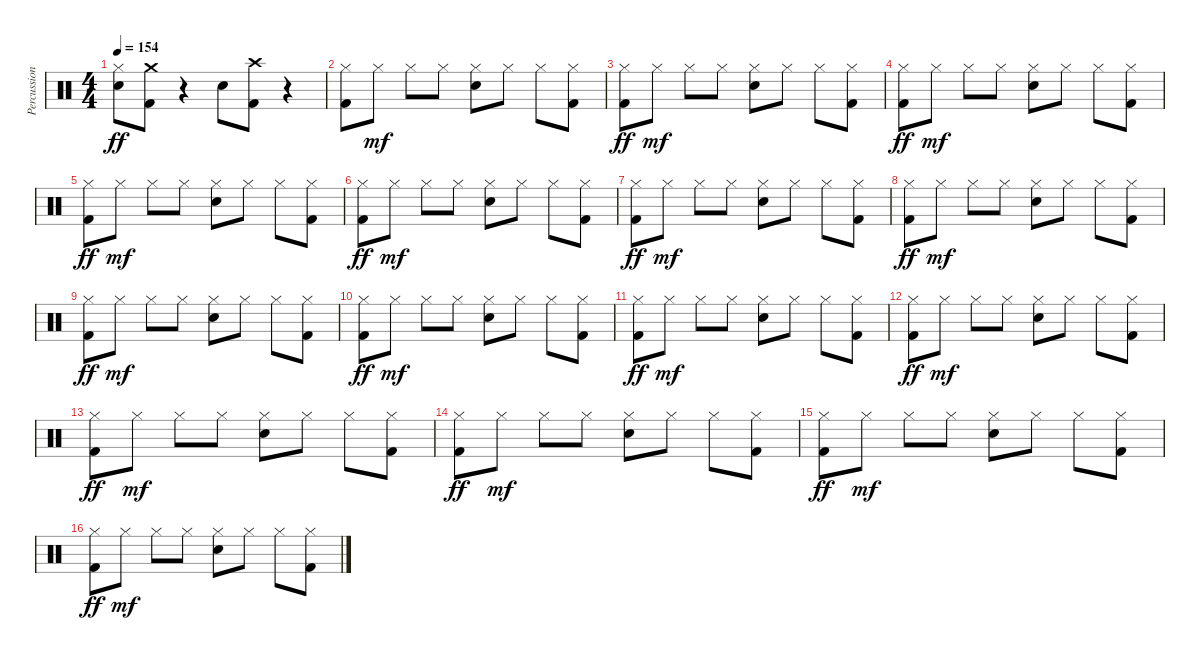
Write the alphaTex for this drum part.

\track ("Percussions" "Percussion") {instrument percussion}
\staff {score}
\articulation defaults
\ts (4 4)
\tempo 154
\clef neutral
\ks c
("Hi-Hat (closed)" "Electric Snare (hit)").8{dy ff} ("Crash medium (hit)" "Kick (hit) 2").8 r.4 "Electric Snare (hit)".8 ("Crash high (hit)" "Kick (hit) 2").8 r.4 |
("Hi-Hat (closed)" "Kick (hit) 2").8{volume 10} "Hi-Hat (closed)".8{dy mf} "Hi-Hat (closed)".8 "Hi-Hat (closed)".8 ("Hi-Hat (closed)" "Electric Snare (hit)").8 "Hi-Hat (closed)".8 "Hi-Hat (closed)".8 ("Hi-Hat (closed)" "Kick (hit) 2").8 |
("Hi-Hat (closed)" "Kick (hit) 2").8{dy ff} "Hi-Hat (closed)".8{dy mf} "Hi-Hat (closed)".8 "Hi-Hat (closed)".8 ("Hi-Hat (closed)" "Electric Snare (hit)").8 "Hi-Hat (closed)".8 "Hi-Hat (closed)".8 ("Hi-Hat (closed)" "Kick (hit) 2").8 |
("Hi-Hat (closed)" "Kick (hit) 2").8{dy ff} "Hi-Hat (closed)".8{dy mf} "Hi-Hat (closed)".8 "Hi-Hat (closed)".8 ("Hi-Hat (closed)" "Electric Snare (hit)").8 "Hi-Hat (closed)".8 "Hi-Hat (closed)".8 ("Hi-Hat (closed)" "Kick (hit) 2").8 |
("Hi-Hat (closed)" "Kick (hit) 2").8{dy ff} "Hi-Hat (closed)".8{dy mf} "Hi-Hat (closed)".8 "Hi-Hat (closed)".8 ("Hi-Hat (closed)" "Electric Snare (hit)").8 "Hi-Hat (closed)".8 "Hi-Hat (closed)".8 ("Hi-Hat (closed)" "Kick (hit) 2").8 |
("Hi-Hat (closed)" "Kick (hit) 2").8{dy ff} "Hi-Hat (closed)".8{dy mf} "Hi-Hat (closed)".8 "Hi-Hat (closed)".8 ("Hi-Hat (closed)" "Electric Snare (hit)").8 "Hi-Hat (closed)".8 "Hi-Hat (closed)".8 ("Hi-Hat (closed)" "Kick (hit) 2").8 |
("Hi-Hat (closed)" "Kick (hit) 2").8{dy ff} "Hi-Hat (closed)".8{dy mf} "Hi-Hat (closed)".8 "Hi-Hat (closed)".8 ("Hi-Hat (closed)" "Electric Snare (hit)").8 "Hi-Hat (closed)".8 "Hi-Hat (closed)".8 ("Hi-Hat (closed)" "Kick (hit) 2").8 |
("Hi-Hat (closed)" "Kick (hit) 2").8{dy ff} "Hi-Hat (closed)".8{dy mf} "Hi-Hat (closed)".8 "Hi-Hat (closed)".8 ("Hi-Hat (closed)" "Electric Snare (hit)").8 "Hi-Hat (closed)".8 "Hi-Hat (closed)".8 ("Hi-Hat (closed)" "Kick (hit) 2").8 |
("Hi-Hat (closed)" "Kick (hit) 2").8{dy ff} "Hi-Hat (closed)".8{dy mf} "Hi-Hat (closed)".8 "Hi-Hat (closed)".8 ("Hi-Hat (closed)" "Electric Snare (hit)").8 "Hi-Hat (closed)".8 "Hi-Hat (closed)".8 ("Hi-Hat (closed)" "Kick (hit) 2").8 |
("Hi-Hat (closed)" "Kick (hit) 2").8{dy ff} "Hi-Hat (closed)".8{dy mf} "Hi-Hat (closed)".8 "Hi-Hat (closed)".8 ("Hi-Hat (closed)" "Electric Snare (hit)").8 "Hi-Hat (closed)".8 "Hi-Hat (closed)".8 ("Hi-Hat (closed)" "Kick (hit) 2").8 |
("Hi-Hat (closed)" "Kick (hit) 2").8{dy ff} "Hi-Hat (closed)".8{dy mf} "Hi-Hat (closed)".8 "Hi-Hat (closed)".8 ("Hi-Hat (closed)" "Electric Snare (hit)").8 "Hi-Hat (closed)".8 "Hi-Hat (closed)".8 ("Hi-Hat (closed)" "Kick (hit) 2").8 |
("Hi-Hat (closed)" "Kick (hit) 2").8{dy ff} "Hi-Hat (closed)".8{dy mf} "Hi-Hat (closed)".8 "Hi-Hat (closed)".8 ("Hi-Hat (closed)" "Electric Snare (hit)").8 "Hi-Hat (closed)".8 "Hi-Hat (closed)".8 ("Hi-Hat (closed)" "Kick (hit) 2").8 |
("Hi-Hat (closed)" "Kick (hit) 2").8{dy ff} "Hi-Hat (closed)".8{dy mf} "Hi-Hat (closed)".8 "Hi-Hat (closed)".8 ("Hi-Hat (closed)" "Electric Snare (hit)").8 "Hi-Hat (closed)".8 "Hi-Hat (closed)".8 ("Hi-Hat (closed)" "Kick (hit) 2").8 |
("Hi-Hat (closed)" "Kick (hit) 2").8{dy ff} "Hi-Hat (closed)".8{dy mf} "Hi-Hat (closed)".8 "Hi-Hat (closed)".8 ("Hi-Hat (closed)" "Electric Snare (hit)").8 "Hi-Hat (closed)".8 "Hi-Hat (closed)".8 ("Hi-Hat (closed)" "Kick (hit) 2").8 |
("Hi-Hat (closed)" "Kick (hit) 2").8{dy ff} "Hi-Hat (closed)".8{dy mf} "Hi-Hat (closed)".8 "Hi-Hat (closed)".8 ("Hi-Hat (closed)" "Electric Snare (hit)").8 "Hi-Hat (closed)".8 "Hi-Hat (closed)".8 ("Hi-Hat (closed)" "Kick (hit) 2").8 |
("Hi-Hat (closed)" "Kick (hit) 2").8{dy ff} "Hi-Hat (closed)".8{dy mf} "Hi-Hat (closed)".8 "Hi-Hat (closed)".8 ("Hi-Hat (closed)" "Electric Snare (hit)").8 "Hi-Hat (closed)".8 "Hi-Hat (closed)".8 ("Hi-Hat (closed)" "Kick (hit) 2").8
